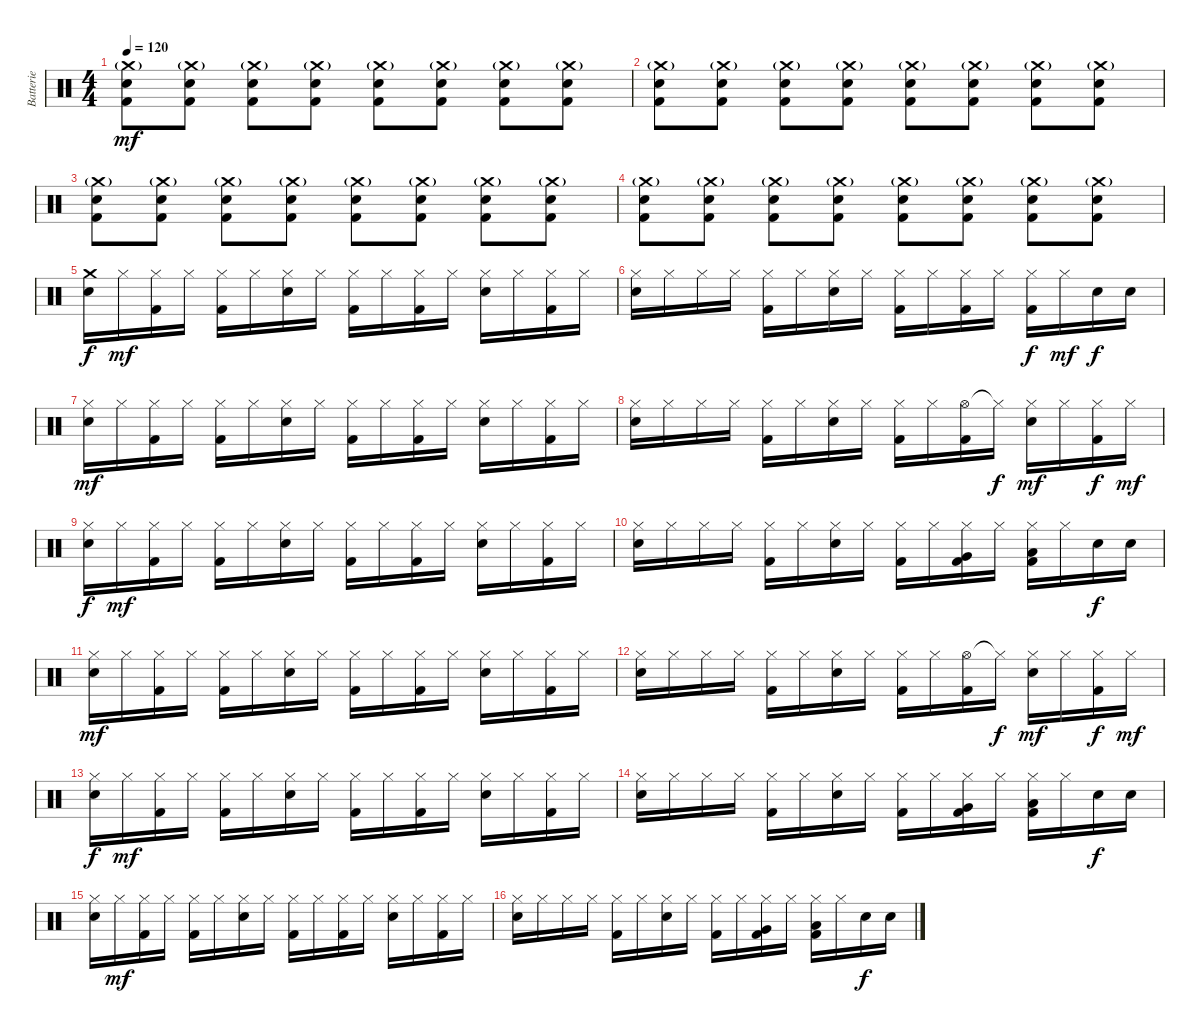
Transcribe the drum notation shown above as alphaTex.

\track ("Batterie" "Batterie") {instrument percussion}
\staff {score}
\articulation defaults
\ts (4 4)
\tempo 120
\clef neutral
\ks c
("Crash medium (hit)"{g} "Electric Snare (hit)" "Kick (hit) 2").8{dy mf} ("Crash medium (hit)"{g} "Electric Snare (hit)" "Kick (hit) 2").8 ("Crash medium (hit)"{g} "Electric Snare (hit)" "Kick (hit) 2").8 ("Crash medium (hit)"{g} "Electric Snare (hit)" "Kick (hit) 2").8 ("Crash medium (hit)"{g} "Electric Snare (hit)" "Kick (hit) 2").8 ("Crash medium (hit)"{g} "Electric Snare (hit)" "Kick (hit) 2").8 ("Crash medium (hit)"{g} "Electric Snare (hit)" "Kick (hit) 2").8 ("Crash medium (hit)"{g} "Electric Snare (hit)" "Kick (hit) 2").8 |
("Crash medium (hit)"{g} "Electric Snare (hit)" "Kick (hit) 2").8 ("Crash medium (hit)"{g} "Electric Snare (hit)" "Kick (hit) 2").8 ("Crash medium (hit)"{g} "Electric Snare (hit)" "Kick (hit) 2").8 ("Crash medium (hit)"{g} "Electric Snare (hit)" "Kick (hit) 2").8 ("Crash medium (hit)"{g} "Electric Snare (hit)" "Kick (hit) 2").8 ("Crash medium (hit)"{g} "Electric Snare (hit)" "Kick (hit) 2").8 ("Crash medium (hit)"{g} "Electric Snare (hit)" "Kick (hit) 2").8 ("Crash medium (hit)"{g} "Electric Snare (hit)" "Kick (hit) 2").8 |
("Crash medium (hit)"{g} "Electric Snare (hit)" "Kick (hit) 2").8 ("Crash medium (hit)"{g} "Electric Snare (hit)" "Kick (hit) 2").8 ("Crash medium (hit)"{g} "Electric Snare (hit)" "Kick (hit) 2").8 ("Crash medium (hit)"{g} "Electric Snare (hit)" "Kick (hit) 2").8 ("Crash medium (hit)"{g} "Electric Snare (hit)" "Kick (hit) 2").8 ("Crash medium (hit)"{g} "Electric Snare (hit)" "Kick (hit) 2").8 ("Crash medium (hit)"{g} "Electric Snare (hit)" "Kick (hit) 2").8 ("Crash medium (hit)"{g} "Electric Snare (hit)" "Kick (hit) 2").8 |
("Crash medium (hit)"{g} "Electric Snare (hit)" "Kick (hit) 2").8 ("Crash medium (hit)"{g} "Electric Snare (hit)" "Kick (hit) 2").8 ("Crash medium (hit)"{g} "Electric Snare (hit)" "Kick (hit) 2").8 ("Crash medium (hit)"{g} "Electric Snare (hit)" "Kick (hit) 2").8 ("Crash medium (hit)"{g} "Electric Snare (hit)" "Kick (hit) 2").8 ("Crash medium (hit)"{g} "Electric Snare (hit)" "Kick (hit) 2").8 ("Crash medium (hit)"{g} "Electric Snare (hit)" "Kick (hit) 2").8 ("Crash medium (hit)"{g} "Electric Snare (hit)" "Kick (hit) 2").8 |
("Crash medium (hit)" "Snare (hit) 2").16{dy f} "Hi-Hat (closed)".16{dy mf} ("Hi-Hat (closed)" "Kick (hit) 2").16 "Hi-Hat (closed)".16 ("Hi-Hat (closed)" "Kick (hit) 2").16 "Hi-Hat (closed)".16 ("Hi-Hat (closed)" "Snare (hit) 2").16 "Hi-Hat (closed)".16 ("Hi-Hat (closed)" "Kick (hit) 2").16 "Hi-Hat (closed)".16 ("Hi-Hat (closed)" "Kick (hit) 2").16 "Hi-Hat (closed)".16 ("Hi-Hat (closed)" "Snare (hit) 2").16 "Hi-Hat (closed)".16 ("Hi-Hat (closed)" "Kick (hit) 2").16 "Hi-Hat (closed)".16 |
("Hi-Hat (closed)" "Snare (hit) 2").16 "Hi-Hat (closed)".16 "Hi-Hat (closed)".16 "Hi-Hat (closed)".16 ("Hi-Hat (closed)" "Kick (hit) 2").16 "Hi-Hat (closed)".16 ("Hi-Hat (closed)" "Snare (hit) 2").16 "Hi-Hat (closed)".16 ("Hi-Hat (closed)" "Kick (hit) 2").16 "Hi-Hat (closed)".16 ("Hi-Hat (closed)" "Kick (hit) 2").16 "Hi-Hat (closed)".16 ("Hi-Hat (closed)" "Kick (hit) 2").16{dy f} "Hi-Hat (closed)".16{dy mf} "Electric Snare (hit)".16{dy f} "Electric Snare (hit)".16 |
("Hi-Hat (closed)" "Snare (hit) 2").16{dy mf} "Hi-Hat (closed)".16 ("Hi-Hat (closed)" "Kick (hit) 2").16 "Hi-Hat (closed)".16 ("Hi-Hat (closed)" "Kick (hit) 2").16 "Hi-Hat (closed)".16 ("Hi-Hat (closed)" "Snare (hit) 2").16 "Hi-Hat (closed)".16 ("Hi-Hat (closed)" "Kick (hit) 2").16 "Hi-Hat (closed)".16 ("Hi-Hat (closed)" "Kick (hit) 2").16 "Hi-Hat (closed)".16 ("Hi-Hat (closed)" "Snare (hit) 2").16 "Hi-Hat (closed)".16 ("Hi-Hat (closed)" "Kick (hit) 2").16 "Hi-Hat (closed)".16 |
("Hi-Hat (closed)" "Snare (hit) 2").16 "Hi-Hat (closed)".16 "Hi-Hat (closed)".16 "Hi-Hat (closed)".16 ("Hi-Hat (closed)" "Kick (hit) 2").16 "Hi-Hat (closed)".16 ("Hi-Hat (closed)" "Snare (hit) 2").16 "Hi-Hat (closed)".16 ("Hi-Hat (closed)" "Kick (hit) 2").16 "Hi-Hat (closed)".16 ("Hi-Hat (open)" "Kick (hit) 2").16 "Hi-Hat (closed)"{t}.16{dy f} ("Hi-Hat (closed)" "Snare (hit) 2").16{dy mf} "Hi-Hat (closed)".16 ("Hi-Hat (closed)" "Kick (hit) 2").16{dy f} "Hi-Hat (closed)".16{dy mf} |
("Hi-Hat (closed)" "Snare (hit) 2").16{dy f} "Hi-Hat (closed)".16{dy mf} ("Hi-Hat (closed)" "Kick (hit) 2").16 "Hi-Hat (closed)".16 ("Hi-Hat (closed)" "Kick (hit) 2").16 "Hi-Hat (closed)".16 ("Hi-Hat (closed)" "Snare (hit) 2").16 "Hi-Hat (closed)".16 ("Hi-Hat (closed)" "Kick (hit) 2").16 "Hi-Hat (closed)".16 ("Hi-Hat (closed)" "Kick (hit) 2").16 "Hi-Hat (closed)".16 ("Hi-Hat (closed)" "Snare (hit) 2").16 "Hi-Hat (closed)".16 ("Hi-Hat (closed)" "Kick (hit) 2").16 "Hi-Hat (closed)".16 |
("Hi-Hat (closed)" "Snare (hit) 2").16 "Hi-Hat (closed)".16 "Hi-Hat (closed)".16 "Hi-Hat (closed)".16 ("Hi-Hat (closed)" "Kick (hit) 2").16 "Hi-Hat (closed)".16 ("Hi-Hat (closed)" "Snare (hit) 2").16 "Hi-Hat (closed)".16 ("Hi-Hat (closed)" "Kick (hit) 2").16 "Hi-Hat (closed)".16 ("Hi-Hat (closed)" "Very Low Tom (hit)" "Kick (hit) 2").16 "Hi-Hat (closed)".16 ("Hi-Hat (closed)" "Low Floor Tom (hit)" "Kick (hit) 2").16 "Hi-Hat (closed)".16 "Electric Snare (hit)".16{dy f} "Electric Snare (hit)".16 |
("Hi-Hat (closed)" "Snare (hit) 2").16{dy mf} "Hi-Hat (closed)".16 ("Hi-Hat (closed)" "Kick (hit) 2").16 "Hi-Hat (closed)".16 ("Hi-Hat (closed)" "Kick (hit) 2").16 "Hi-Hat (closed)".16 ("Hi-Hat (closed)" "Snare (hit) 2").16 "Hi-Hat (closed)".16 ("Hi-Hat (closed)" "Kick (hit) 2").16 "Hi-Hat (closed)".16 ("Hi-Hat (closed)" "Kick (hit) 2").16 "Hi-Hat (closed)".16 ("Hi-Hat (closed)" "Snare (hit) 2").16 "Hi-Hat (closed)".16 ("Hi-Hat (closed)" "Kick (hit) 2").16 "Hi-Hat (closed)".16 |
("Hi-Hat (closed)" "Snare (hit) 2").16 "Hi-Hat (closed)".16 "Hi-Hat (closed)".16 "Hi-Hat (closed)".16 ("Hi-Hat (closed)" "Kick (hit) 2").16 "Hi-Hat (closed)".16 ("Hi-Hat (closed)" "Snare (hit) 2").16 "Hi-Hat (closed)".16 ("Hi-Hat (closed)" "Kick (hit) 2").16 "Hi-Hat (closed)".16 ("Hi-Hat (open)" "Kick (hit) 2").16 "Hi-Hat (closed)"{t}.16{dy f} ("Hi-Hat (closed)" "Snare (hit) 2").16{dy mf} "Hi-Hat (closed)".16 ("Hi-Hat (closed)" "Kick (hit) 2").16{dy f} "Hi-Hat (closed)".16{dy mf} |
("Hi-Hat (closed)" "Snare (hit) 2").16{dy f} "Hi-Hat (closed)".16{dy mf} ("Hi-Hat (closed)" "Kick (hit) 2").16 "Hi-Hat (closed)".16 ("Hi-Hat (closed)" "Kick (hit) 2").16 "Hi-Hat (closed)".16 ("Hi-Hat (closed)" "Snare (hit) 2").16 "Hi-Hat (closed)".16 ("Hi-Hat (closed)" "Kick (hit) 2").16 "Hi-Hat (closed)".16 ("Hi-Hat (closed)" "Kick (hit) 2").16 "Hi-Hat (closed)".16 ("Hi-Hat (closed)" "Snare (hit) 2").16 "Hi-Hat (closed)".16 ("Hi-Hat (closed)" "Kick (hit) 2").16 "Hi-Hat (closed)".16 |
("Hi-Hat (closed)" "Snare (hit) 2").16 "Hi-Hat (closed)".16 "Hi-Hat (closed)".16 "Hi-Hat (closed)".16 ("Hi-Hat (closed)" "Kick (hit) 2").16 "Hi-Hat (closed)".16 ("Hi-Hat (closed)" "Snare (hit) 2").16 "Hi-Hat (closed)".16 ("Hi-Hat (closed)" "Kick (hit) 2").16 "Hi-Hat (closed)".16 ("Hi-Hat (closed)" "Very Low Tom (hit)" "Kick (hit) 2").16 "Hi-Hat (closed)".16 ("Hi-Hat (closed)" "Low Floor Tom (hit)" "Kick (hit) 2").16 "Hi-Hat (closed)".16 "Electric Snare (hit)".16{dy f} "Electric Snare (hit)".16 |
("Hi-Hat (closed)" "Snare (hit) 2").16 "Hi-Hat (closed)".16{dy mf} ("Hi-Hat (closed)" "Kick (hit) 2").16 "Hi-Hat (closed)".16 ("Hi-Hat (closed)" "Kick (hit) 2").16 "Hi-Hat (closed)".16 ("Hi-Hat (closed)" "Snare (hit) 2").16 "Hi-Hat (closed)".16 ("Hi-Hat (closed)" "Kick (hit) 2").16 "Hi-Hat (closed)".16 ("Hi-Hat (closed)" "Kick (hit) 2").16 "Hi-Hat (closed)".16 ("Hi-Hat (closed)" "Snare (hit) 2").16 "Hi-Hat (closed)".16 ("Hi-Hat (closed)" "Kick (hit) 2").16 "Hi-Hat (closed)".16 |
("Hi-Hat (closed)" "Snare (hit) 2").16 "Hi-Hat (closed)".16 "Hi-Hat (closed)".16 "Hi-Hat (closed)".16 ("Hi-Hat (closed)" "Kick (hit) 2").16 "Hi-Hat (closed)".16 ("Hi-Hat (closed)" "Snare (hit) 2").16 "Hi-Hat (closed)".16 ("Hi-Hat (closed)" "Kick (hit) 2").16 "Hi-Hat (closed)".16 ("Hi-Hat (closed)" "Very Low Tom (hit)" "Kick (hit) 2").16 "Hi-Hat (closed)".16 ("Hi-Hat (closed)" "Low Floor Tom (hit)" "Kick (hit) 2").16 "Hi-Hat (closed)".16 "Electric Snare (hit)".16{dy f} "Electric Snare (hit)".16
